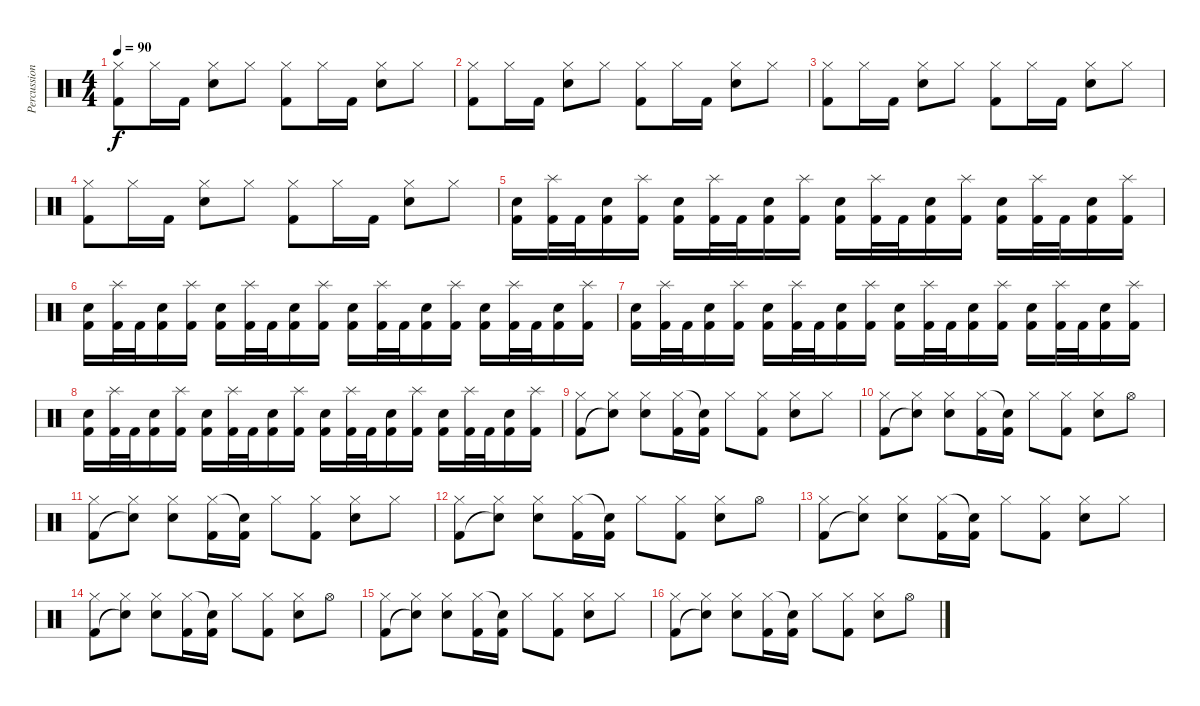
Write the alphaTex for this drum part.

\track ("Percussions" "Percussion") {instrument percussion}
\staff {score}
\articulation defaults
\ts (4 4)
\tempo 90
\clef neutral
\ks c
("Hi-Hat (closed)" "Kick (hit) 2").8{dy f} "Hi-Hat (closed)".16 "Kick (hit) 2".16 ("Hi-Hat (closed)" "Electric Snare (hit)").8 "Hi-Hat (closed)".8 ("Hi-Hat (closed)" "Kick (hit) 2").8 "Hi-Hat (closed)".16 "Kick (hit) 2".16 ("Hi-Hat (closed)" "Electric Snare (hit)").8 "Hi-Hat (closed)".8 |
("Hi-Hat (closed)" "Kick (hit) 2").8 "Hi-Hat (closed)".16 "Kick (hit) 2".16 ("Hi-Hat (closed)" "Electric Snare (hit)").8 "Hi-Hat (closed)".8 ("Hi-Hat (closed)" "Kick (hit) 2").8 "Hi-Hat (closed)".16 "Kick (hit) 2".16 ("Hi-Hat (closed)" "Electric Snare (hit)").8 "Hi-Hat (closed)".8 |
("Hi-Hat (closed)" "Kick (hit) 2").8 "Hi-Hat (closed)".16 "Kick (hit) 2".16 ("Hi-Hat (closed)" "Electric Snare (hit)").8 "Hi-Hat (closed)".8 ("Hi-Hat (closed)" "Kick (hit) 2").8 "Hi-Hat (closed)".16 "Kick (hit) 2".16 ("Hi-Hat (closed)" "Electric Snare (hit)").8 "Hi-Hat (closed)".8 |
("Hi-Hat (closed)" "Kick (hit) 2").8 "Hi-Hat (closed)".16 "Kick (hit) 2".16 ("Hi-Hat (closed)" "Electric Snare (hit)").8 "Hi-Hat (closed)".8 ("Hi-Hat (closed)" "Kick (hit) 2").8 "Hi-Hat (closed)".16 "Kick (hit) 2".16 ("Hi-Hat (closed)" "Electric Snare (hit)").8 "Hi-Hat (closed)".8 |
("Electric Snare (hit)" "Kick (hit) 2").16 ("Splash (hit)" "Kick (hit) 2").32 "Kick (hit) 2".32 ("Electric Snare (hit)" "Kick (hit) 2").16 ("Splash (hit)" "Kick (hit) 2").16 ("Electric Snare (hit)" "Kick (hit) 2").16 ("Splash (hit)" "Kick (hit) 2").32 "Kick (hit) 2".32 ("Electric Snare (hit)" "Kick (hit) 2").16 ("Splash (hit)" "Kick (hit) 2").16 ("Electric Snare (hit)" "Kick (hit) 2").16 ("Splash (hit)" "Kick (hit) 2").32 "Kick (hit) 2".32 ("Electric Snare (hit)" "Kick (hit) 2").16 ("Splash (hit)" "Kick (hit) 2").16 ("Electric Snare (hit)" "Kick (hit) 2").16 ("Splash (hit)" "Kick (hit) 2").32 "Kick (hit) 2".32 ("Electric Snare (hit)" "Kick (hit) 2").16 ("Splash (hit)" "Kick (hit) 2").16 |
("Electric Snare (hit)" "Kick (hit) 2").16 ("Splash (hit)" "Kick (hit) 2").32 "Kick (hit) 2".32 ("Electric Snare (hit)" "Kick (hit) 2").16 ("Splash (hit)" "Kick (hit) 2").16 ("Electric Snare (hit)" "Kick (hit) 2").16 ("Splash (hit)" "Kick (hit) 2").32 "Kick (hit) 2".32 ("Electric Snare (hit)" "Kick (hit) 2").16 ("Splash (hit)" "Kick (hit) 2").16 ("Electric Snare (hit)" "Kick (hit) 2").16 ("Splash (hit)" "Kick (hit) 2").32 "Kick (hit) 2".32 ("Electric Snare (hit)" "Kick (hit) 2").16 ("Splash (hit)" "Kick (hit) 2").16 ("Electric Snare (hit)" "Kick (hit) 2").16 ("Splash (hit)" "Kick (hit) 2").32 "Kick (hit) 2".32 ("Electric Snare (hit)" "Kick (hit) 2").16 ("Splash (hit)" "Kick (hit) 2").16 |
("Electric Snare (hit)" "Kick (hit) 2").16 ("Splash (hit)" "Kick (hit) 2").32 "Kick (hit) 2".32 ("Electric Snare (hit)" "Kick (hit) 2").16 ("Splash (hit)" "Kick (hit) 2").16 ("Electric Snare (hit)" "Kick (hit) 2").16 ("Splash (hit)" "Kick (hit) 2").32 "Kick (hit) 2".32 ("Electric Snare (hit)" "Kick (hit) 2").16 ("Splash (hit)" "Kick (hit) 2").16 ("Electric Snare (hit)" "Kick (hit) 2").16 ("Splash (hit)" "Kick (hit) 2").32 "Kick (hit) 2".32 ("Electric Snare (hit)" "Kick (hit) 2").16 ("Splash (hit)" "Kick (hit) 2").16 ("Electric Snare (hit)" "Kick (hit) 2").16 ("Splash (hit)" "Kick (hit) 2").32 "Kick (hit) 2".32 ("Electric Snare (hit)" "Kick (hit) 2").16 ("Splash (hit)" "Kick (hit) 2").16 |
("Electric Snare (hit)" "Kick (hit) 2").16 ("Splash (hit)" "Kick (hit) 2").32 "Kick (hit) 2".32 ("Electric Snare (hit)" "Kick (hit) 2").16 ("Splash (hit)" "Kick (hit) 2").16 ("Electric Snare (hit)" "Kick (hit) 2").16 ("Splash (hit)" "Kick (hit) 2").32 "Kick (hit) 2".32 ("Electric Snare (hit)" "Kick (hit) 2").16 ("Splash (hit)" "Kick (hit) 2").16 ("Electric Snare (hit)" "Kick (hit) 2").16 ("Splash (hit)" "Kick (hit) 2").32 "Kick (hit) 2".32 ("Electric Snare (hit)" "Kick (hit) 2").16 ("Splash (hit)" "Kick (hit) 2").16 ("Electric Snare (hit)" "Kick (hit) 2").16 ("Splash (hit)" "Kick (hit) 2").32 "Kick (hit) 2".32 ("Electric Snare (hit)" "Kick (hit) 2").16 ("Splash (hit)" "Kick (hit) 2").16 |
("Hi-Hat (closed)" "Kick (hit) 2").8 ("Hi-Hat (closed)" "Snare (hit)"{t}).8 ("Hi-Hat (closed)" "Electric Snare (hit)").8 ("Hi-Hat (closed)" "Kick (hit) 2").16 ("Snare (hit)"{t} "Kick (hit) 2").16 "Hi-Hat (closed)".8 ("Hi-Hat (closed)" "Kick (hit) 2").8 ("Hi-Hat (closed)" "Electric Snare (hit)").8 "Hi-Hat (closed)".8 |
("Hi-Hat (closed)" "Kick (hit) 2").8 ("Hi-Hat (closed)" "Snare (hit)"{t}).8 ("Hi-Hat (closed)" "Electric Snare (hit)").8 ("Hi-Hat (closed)" "Kick (hit) 2").16 ("Snare (hit)"{t} "Kick (hit) 2").16 "Hi-Hat (closed)".8 ("Hi-Hat (closed)" "Kick (hit) 2").8 ("Hi-Hat (closed)" "Electric Snare (hit)").8 "Hi-Hat (open)".8 |
("Hi-Hat (closed)" "Kick (hit) 2").8 ("Hi-Hat (closed)" "Snare (hit)"{t}).8 ("Hi-Hat (closed)" "Electric Snare (hit)").8 ("Hi-Hat (closed)" "Kick (hit) 2").16 ("Snare (hit)"{t} "Kick (hit) 2").16 "Hi-Hat (closed)".8 ("Hi-Hat (closed)" "Kick (hit) 2").8 ("Hi-Hat (closed)" "Electric Snare (hit)").8 "Hi-Hat (closed)".8 |
("Hi-Hat (closed)" "Kick (hit) 2").8 ("Hi-Hat (closed)" "Snare (hit)"{t}).8 ("Hi-Hat (closed)" "Electric Snare (hit)").8 ("Hi-Hat (closed)" "Kick (hit) 2").16 ("Snare (hit)"{t} "Kick (hit) 2").16 "Hi-Hat (closed)".8 ("Hi-Hat (closed)" "Kick (hit) 2").8 ("Hi-Hat (closed)" "Electric Snare (hit)").8 "Hi-Hat (open)".8 |
("Hi-Hat (closed)" "Kick (hit) 2").8 ("Hi-Hat (closed)" "Snare (hit)"{t}).8 ("Hi-Hat (closed)" "Electric Snare (hit)").8 ("Hi-Hat (closed)" "Kick (hit) 2").16 ("Snare (hit)"{t} "Kick (hit) 2").16 "Hi-Hat (closed)".8 ("Hi-Hat (closed)" "Kick (hit) 2").8 ("Hi-Hat (closed)" "Electric Snare (hit)").8 "Hi-Hat (closed)".8 |
("Hi-Hat (closed)" "Kick (hit) 2").8 ("Hi-Hat (closed)" "Snare (hit)"{t}).8 ("Hi-Hat (closed)" "Electric Snare (hit)").8 ("Hi-Hat (closed)" "Kick (hit) 2").16 ("Snare (hit)"{t} "Kick (hit) 2").16 "Hi-Hat (closed)".8 ("Hi-Hat (closed)" "Kick (hit) 2").8 ("Hi-Hat (closed)" "Electric Snare (hit)").8 "Hi-Hat (open)".8 |
("Hi-Hat (closed)" "Kick (hit) 2").8 ("Hi-Hat (closed)" "Snare (hit)"{t}).8 ("Hi-Hat (closed)" "Electric Snare (hit)").8 ("Hi-Hat (closed)" "Kick (hit) 2").16 ("Snare (hit)"{t} "Kick (hit) 2").16 "Hi-Hat (closed)".8 ("Hi-Hat (closed)" "Kick (hit) 2").8 ("Hi-Hat (closed)" "Electric Snare (hit)").8 "Hi-Hat (closed)".8 |
("Hi-Hat (closed)" "Kick (hit) 2").8 ("Hi-Hat (closed)" "Snare (hit)"{t}).8 ("Hi-Hat (closed)" "Electric Snare (hit)").8 ("Hi-Hat (closed)" "Kick (hit) 2").16 ("Snare (hit)"{t} "Kick (hit) 2").16 "Hi-Hat (closed)".8 ("Hi-Hat (closed)" "Kick (hit) 2").8 ("Hi-Hat (closed)" "Electric Snare (hit)").8 "Hi-Hat (open)".8
